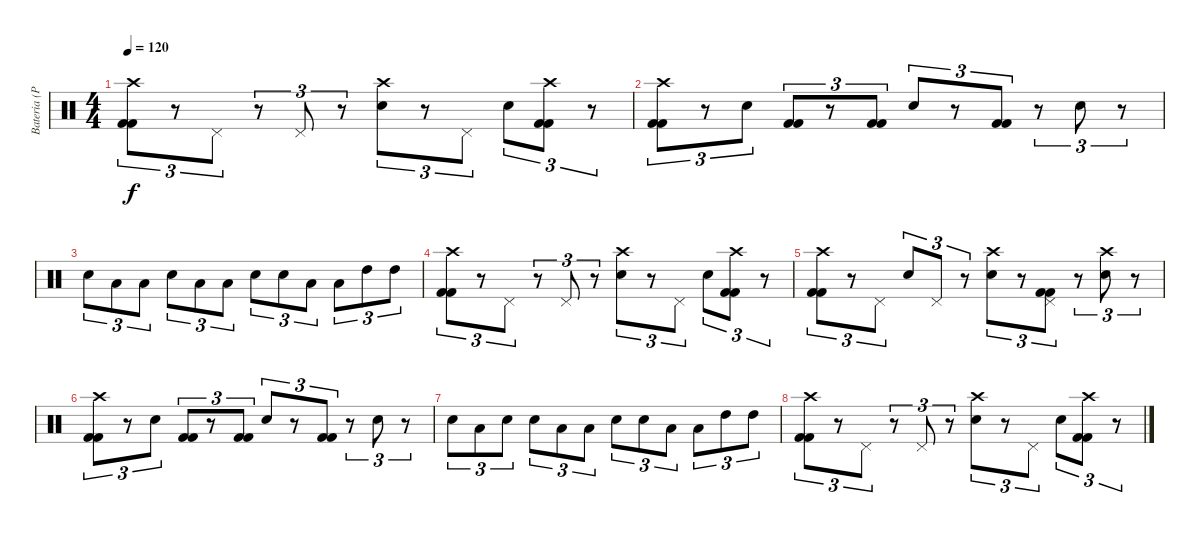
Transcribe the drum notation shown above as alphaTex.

\track ("Bateria (Pedro Cota)" "Bateria (P") {instrument percussion}
\staff {score}
\articulation defaults
\ts (4 4)
\tempo 120
\clef neutral
\ks c
("Crash high (hit)" "Kick (hit) 2" "Kick (hit) 2").8{tu (3 2) dy f} r.8{tu (3 2)} "Pedal Hi-Hat (hit)".8{tu (3 2)} r.8{tu (3 2)} "Pedal Hi-Hat (hit)".8{tu (3 2)} r.8{tu (3 2)} ("Crash high (hit)" "Snare (hit) 2").8{tu (3 2)} r.8{tu (3 2)} "Pedal Hi-Hat (hit)".8{tu (3 2)} "Snare (hit) 2".8{tu (3 2)} ("Crash high (hit)" "Kick (hit) 2" "Kick (hit) 2").8{tu (3 2)} r.8{tu (3 2)} |
("Crash high (hit)" "Kick (hit) 2" "Kick (hit) 2").8{tu (3 2)} r.8{tu (3 2)} "Snare (hit) 2".8{tu (3 2)} ("Kick (hit) 2" "Kick (hit) 2").8{tu (3 2)} r.8{tu (3 2)} ("Kick (hit) 2" "Kick (hit) 2").8{tu (3 2)} "Snare (hit) 2".8{tu (3 2)} r.8{tu (3 2)} ("Kick (hit) 2" "Kick (hit) 2").8{tu (3 2)} r.8{tu (3 2)} "Snare (hit) 2".8{tu (3 2)} r.8{tu (3 2)} |
"Snare (hit) 2".8{tu (3 2)} "Low Tom (hit)".8{tu (3 2)} "Low Tom (hit)".8{tu (3 2)} "Snare (hit) 2".8{tu (3 2)} "Low Tom (hit)".8{tu (3 2)} "Low Tom (hit)".8{tu (3 2)} "Snare (hit) 2".8{tu (3 2)} "Snare (hit) 2".8{tu (3 2)} "Low Tom (hit)".8{tu (3 2)} "Low Tom (hit)".8{tu (3 2)} "High Tom (hit)".8{tu (3 2)} "High Tom (hit)".8{tu (3 2)} |
("Crash high (hit)" "Kick (hit) 2" "Kick (hit) 2").8{tu (3 2)} r.8{tu (3 2)} "Pedal Hi-Hat (hit)".8{tu (3 2)} r.8{tu (3 2)} "Pedal Hi-Hat (hit)".8{tu (3 2)} r.8{tu (3 2)} ("Crash high (hit)" "Snare (hit) 2").8{tu (3 2)} r.8{tu (3 2)} "Pedal Hi-Hat (hit)".8{tu (3 2)} "Snare (hit) 2".8{tu (3 2)} ("Crash high (hit)" "Kick (hit) 2" "Kick (hit) 2").8{tu (3 2)} r.8{tu (3 2)} |
("Crash high (hit)" "Kick (hit) 2" "Kick (hit) 2").8{tu (3 2)} r.8{tu (3 2)} "Pedal Hi-Hat (hit)".8{tu (3 2)} "Snare (hit) 2".8{tu (3 2)} "Pedal Hi-Hat (hit)".8{tu (3 2)} r.8{tu (3 2)} ("Crash high (hit)" "Snare (hit) 2").8{tu (3 2)} r.8{tu (3 2)} ("Pedal Hi-Hat (hit)" "Kick (hit) 2" "Kick (hit) 2").8{tu (3 2)} r.8{tu (3 2)} ("Crash high (hit)" "Snare (hit) 2").8{tu (3 2)} r.8{tu (3 2)} |
("Crash high (hit)" "Kick (hit) 2" "Kick (hit) 2").8{tu (3 2)} r.8{tu (3 2)} "Snare (hit) 2".8{tu (3 2)} ("Kick (hit) 2" "Kick (hit) 2").8{tu (3 2)} r.8{tu (3 2)} ("Kick (hit) 2" "Kick (hit) 2").8{tu (3 2)} "Snare (hit) 2".8{tu (3 2)} r.8{tu (3 2)} ("Kick (hit) 2" "Kick (hit) 2").8{tu (3 2)} r.8{tu (3 2)} "Snare (hit) 2".8{tu (3 2)} r.8{tu (3 2)} |
"Snare (hit) 2".8{tu (3 2)} "Low Tom (hit)".8{tu (3 2)} "Snare (hit) 2".8{tu (3 2)} "Snare (hit) 2".8{tu (3 2)} "Low Tom (hit)".8{tu (3 2)} "Low Tom (hit)".8{tu (3 2)} "Snare (hit) 2".8{tu (3 2)} "Snare (hit) 2".8{tu (3 2)} "Low Tom (hit)".8{tu (3 2)} "Low Tom (hit)".8{tu (3 2)} "High Tom (hit)".8{tu (3 2)} "High Tom (hit)".8{tu (3 2)} |
("Crash high (hit)" "Kick (hit) 2" "Kick (hit) 2").8{tu (3 2)} r.8{tu (3 2)} "Pedal Hi-Hat (hit)".8{tu (3 2)} r.8{tu (3 2)} "Pedal Hi-Hat (hit)".8{tu (3 2)} r.8{tu (3 2)} ("Crash high (hit)" "Snare (hit) 2").8{tu (3 2)} r.8{tu (3 2)} "Pedal Hi-Hat (hit)".8{tu (3 2)} "Snare (hit) 2".8{tu (3 2)} ("Crash high (hit)" "Kick (hit) 2" "Kick (hit) 2").8{tu (3 2)} r.8{tu (3 2)}
